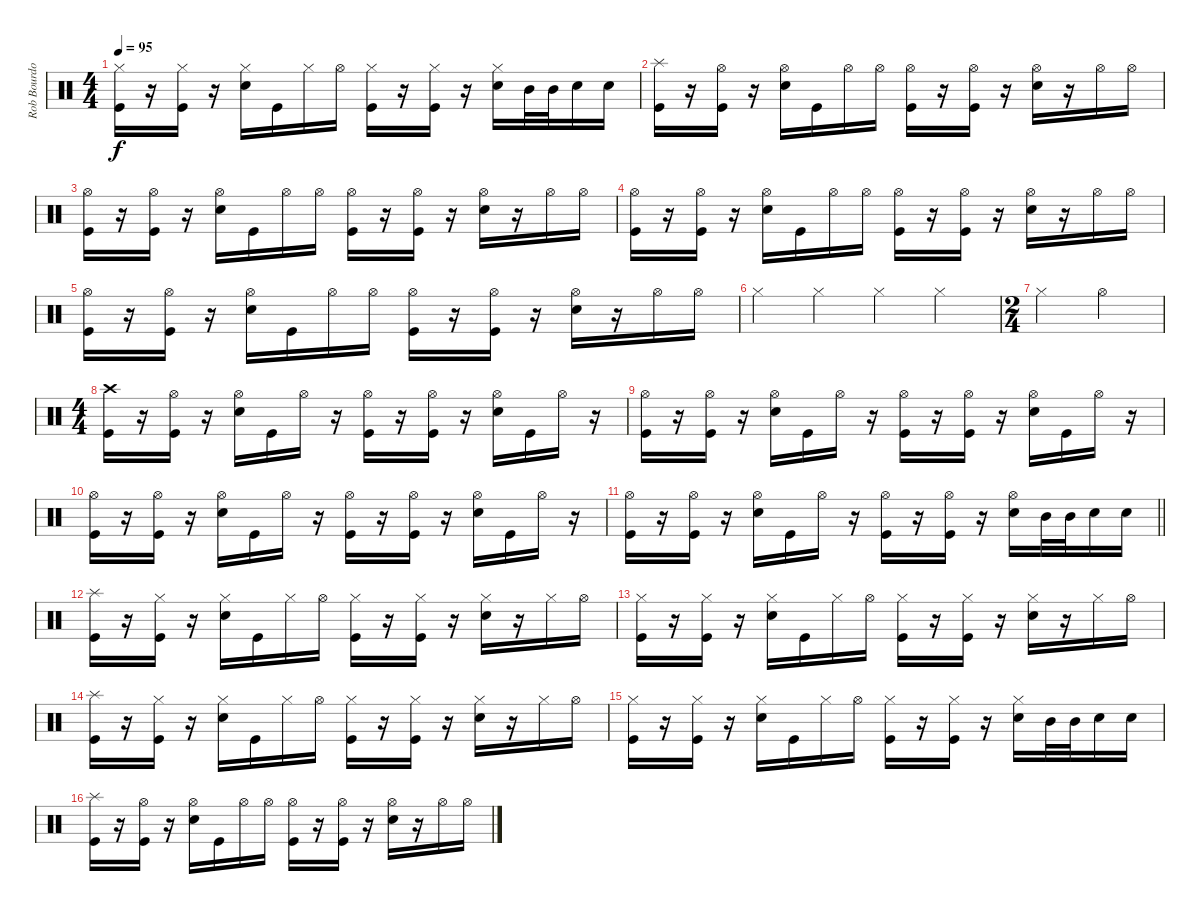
\track ("Rob Bourdon" "Rob Bourdo") {instrument percussion}
\staff {score}
\articulation defaults
\ts (4 4)
\tempo 95
\clef neutral
\ks c
("Hi-Hat (closed)" "Kick (hit)").16{dy f} r.16 ("Hi-Hat (closed)" "Kick (hit)").16 r.16 ("Hi-Hat (closed)" "Snare (hit) 2").16 "Kick (hit)".16 "Hi-Hat (closed)".16 "Hi-Hat (open)".16 ("Hi-Hat (closed)" "Kick (hit)").16 r.16 ("Hi-Hat (closed)" "Kick (hit)").16 r.16 ("Hi-Hat (closed)" "Snare (hit) 2").16 "Mid Tom (hit)".32 "Mid Tom (hit)".32 "Snare (hit) 2".16 "Snare (hit) 2".16 |
("Splash (hit)" "Kick (hit)").16 r.16 ("Hi-Hat (open)" "Kick (hit)").16 r.16 ("Hi-Hat (open)" "Snare (hit) 2").16 "Kick (hit)".16 "Hi-Hat (open)".16 "Hi-Hat (open)".16 ("Hi-Hat (open)" "Kick (hit)").16 r.16 ("Hi-Hat (open)" "Kick (hit)").16 r.16 ("Hi-Hat (open)" "Snare (hit) 2").16 r.16 "Hi-Hat (open)".16 "Hi-Hat (open)".16 |
("Hi-Hat (open)" "Kick (hit)").16 r.16 ("Hi-Hat (open)" "Kick (hit)").16 r.16 ("Hi-Hat (open)" "Snare (hit) 2").16 "Kick (hit)".16 "Hi-Hat (open)".16 "Hi-Hat (open)".16 ("Hi-Hat (open)" "Kick (hit)").16 r.16 ("Hi-Hat (open)" "Kick (hit)").16 r.16 ("Hi-Hat (open)" "Snare (hit) 2").16 r.16 "Hi-Hat (open)".16 "Hi-Hat (open)".16 |
("Hi-Hat (open)" "Kick (hit)").16 r.16 ("Hi-Hat (open)" "Kick (hit)").16 r.16 ("Hi-Hat (open)" "Snare (hit) 2").16 "Kick (hit)".16 "Hi-Hat (open)".16 "Hi-Hat (open)".16 ("Hi-Hat (open)" "Kick (hit)").16 r.16 ("Hi-Hat (open)" "Kick (hit)").16 r.16 ("Hi-Hat (open)" "Snare (hit) 2").16 r.16 "Hi-Hat (open)".16 "Hi-Hat (open)".16 |
("Hi-Hat (open)" "Kick (hit)").16 r.16 ("Hi-Hat (open)" "Kick (hit)").16 r.16 ("Hi-Hat (open)" "Snare (hit) 2").16 "Kick (hit)".16 "Hi-Hat (open)".16 "Hi-Hat (open)".16 ("Hi-Hat (open)" "Kick (hit)").16 r.16 ("Hi-Hat (open)" "Kick (hit)").16 r.16 ("Hi-Hat (open)" "Snare (hit) 2").16 r.16 "Hi-Hat (open)".16 "Hi-Hat (open)".16 |
"Hi-Hat (closed)".4 "Hi-Hat (closed)".4 "Hi-Hat (closed)".4 "Hi-Hat (closed)".4 |
\ts (2 4)
"Hi-Hat (closed)".4 "Hi-Hat (open)".4 |
\ts (4 4)
("Crash high (hit)" "Kick (hit)").16 r.16 ("Hi-Hat (open)" "Kick (hit)").16 r.16 ("Hi-Hat (open)" "Snare (hit) 2").16 "Kick (hit)".16 "Hi-Hat (open)".16 r.16 ("Hi-Hat (open)" "Kick (hit)").16 r.16 ("Hi-Hat (open)" "Kick (hit)").16 r.16 ("Hi-Hat (open)" "Snare (hit) 2").16 "Kick (hit)".16 "Hi-Hat (open)".16 r.16 |
("Hi-Hat (open)" "Kick (hit)").16 r.16 ("Hi-Hat (open)" "Kick (hit)").16 r.16 ("Hi-Hat (open)" "Snare (hit) 2").16 "Kick (hit)".16 "Hi-Hat (open)".16 r.16 ("Hi-Hat (open)" "Kick (hit)").16 r.16 ("Hi-Hat (open)" "Kick (hit)").16 r.16 ("Hi-Hat (open)" "Snare (hit) 2").16 "Kick (hit)".16 "Hi-Hat (open)".16 r.16 |
("Hi-Hat (open)" "Kick (hit)").16 r.16 ("Hi-Hat (open)" "Kick (hit)").16 r.16 ("Hi-Hat (open)" "Snare (hit) 2").16 "Kick (hit)".16 "Hi-Hat (open)".16 r.16 ("Hi-Hat (open)" "Kick (hit)").16 r.16 ("Hi-Hat (open)" "Kick (hit)").16 r.16 ("Hi-Hat (open)" "Snare (hit) 2").16 "Kick (hit)".16 "Hi-Hat (open)".16 r.16 |
\barLineRight lightlight
("Hi-Hat (open)" "Kick (hit)").16 r.16 ("Hi-Hat (open)" "Kick (hit)").16 r.16 ("Hi-Hat (open)" "Snare (hit) 2").16 "Kick (hit)".16 "Hi-Hat (open)".16 r.16 ("Hi-Hat (open)" "Kick (hit)").16 r.16 ("Hi-Hat (open)" "Kick (hit)").16 r.16 ("Hi-Hat (open)" "Snare (hit) 2").16 "Mid Tom (hit)".32 "Mid Tom (hit)".32 "Snare (hit) 2".16 "Snare (hit) 2".16 |
("Splash (hit)" "Kick (hit)").16 r.16 ("Hi-Hat (closed)" "Kick (hit)").16 r.16 ("Hi-Hat (closed)" "Snare (hit) 2").16 "Kick (hit)".16 "Hi-Hat (closed)".16 "Hi-Hat (open)".16 ("Hi-Hat (closed)" "Kick (hit)").16 r.16 ("Hi-Hat (closed)" "Kick (hit)").16 r.16 ("Hi-Hat (closed)" "Snare (hit) 2").16 r.16 "Hi-Hat (closed)".16 "Hi-Hat (open)".16 |
("Hi-Hat (closed)" "Kick (hit)").16 r.16 ("Hi-Hat (closed)" "Kick (hit)").16 r.16 ("Hi-Hat (closed)" "Snare (hit) 2").16 "Kick (hit)".16 "Hi-Hat (closed)".16 "Hi-Hat (open)".16 ("Hi-Hat (closed)" "Kick (hit)").16 r.16 ("Hi-Hat (closed)" "Kick (hit)").16 r.16 ("Hi-Hat (closed)" "Snare (hit) 2").16 r.16 "Hi-Hat (closed)".16 "Hi-Hat (open)".16 |
("Splash (hit)" "Kick (hit)").16 r.16 ("Hi-Hat (closed)" "Kick (hit)").16 r.16 ("Hi-Hat (closed)" "Snare (hit) 2").16 "Kick (hit)".16 "Hi-Hat (closed)".16 "Hi-Hat (open)".16 ("Hi-Hat (closed)" "Kick (hit)").16 r.16 ("Hi-Hat (closed)" "Kick (hit)").16 r.16 ("Hi-Hat (closed)" "Snare (hit) 2").16 r.16 "Hi-Hat (closed)".16 "Hi-Hat (open)".16 |
("Hi-Hat (closed)" "Kick (hit)").16 r.16 ("Hi-Hat (closed)" "Kick (hit)").16 r.16 ("Hi-Hat (closed)" "Snare (hit) 2").16 "Kick (hit)".16 "Hi-Hat (closed)".16 "Hi-Hat (open)".16 ("Hi-Hat (closed)" "Kick (hit)").16 r.16 ("Hi-Hat (closed)" "Kick (hit)").16 r.16 ("Hi-Hat (closed)" "Snare (hit) 2").16 "Mid Tom (hit)".32 "Mid Tom (hit)".32 "Snare (hit) 2".16 "Snare (hit) 2".16 |
("Splash (hit)" "Kick (hit)").16 r.16 ("Hi-Hat (open)" "Kick (hit)").16 r.16 ("Hi-Hat (open)" "Snare (hit) 2").16 "Kick (hit)".16 "Hi-Hat (open)".16 "Hi-Hat (open)".16 ("Hi-Hat (open)" "Kick (hit)").16 r.16 ("Hi-Hat (open)" "Kick (hit)").16 r.16 ("Hi-Hat (open)" "Snare (hit) 2").16 r.16 "Hi-Hat (open)".16 "Hi-Hat (open)".16
